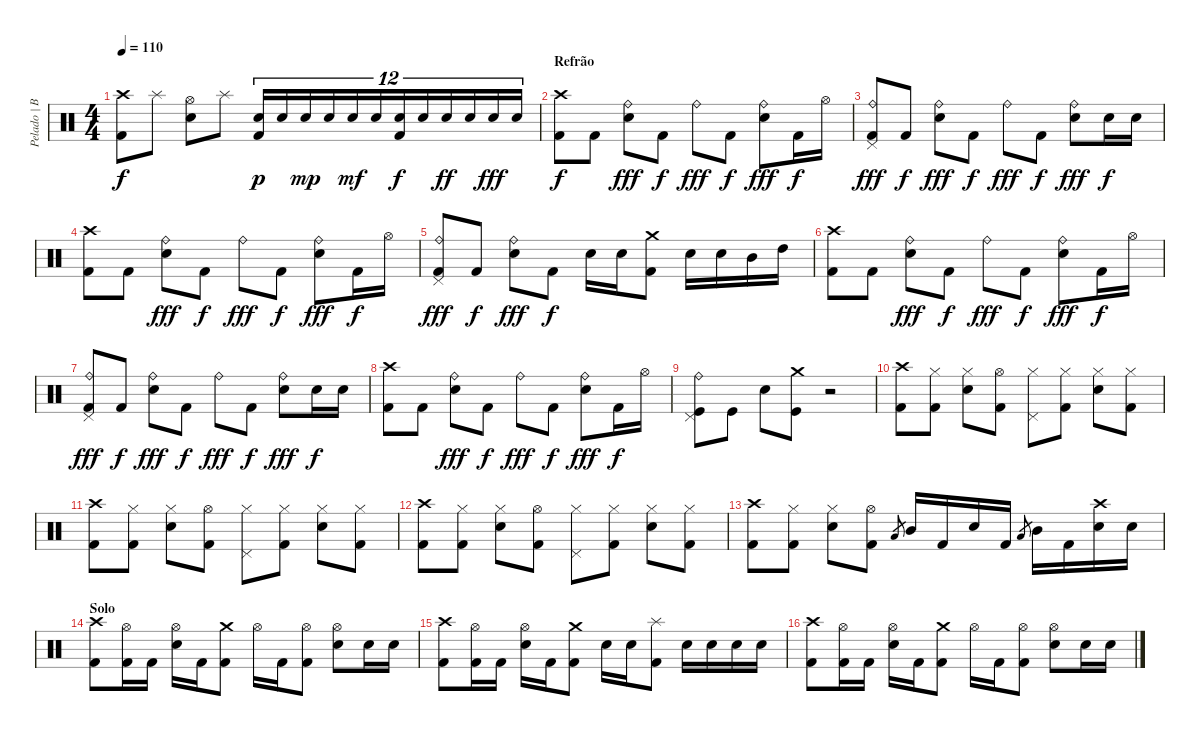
\track ("Pelado | Bateria" "Pelado | B") {instrument percussion}
\staff {score}
\articulation defaults
\ts (4 4)
\tempo 110
\clef neutral
\ks c
("Crash high (hit)" "Kick (hit) 2").8{dy f} "Splash (hit)".8 ("Hi-Hat (open)" "Snare (hit) 2").8 "Splash (hit)".8 ("Snare (hit) 2" "Kick (hit) 2").16{tu (12 8) dy p} "Snare (hit) 2".16{tu (12 8)} "Snare (hit) 2".16{tu (12 8) dy mp} "Snare (hit) 2".16{tu (12 8)} "Snare (hit) 2".16{tu (12 8) dy mf} "Snare (hit) 2".16{tu (12 8)} ("Snare (hit) 2" "Kick (hit) 2").16{tu (12 8) dy f} "Snare (hit) 2".16{tu (12 8)} "Snare (hit) 2".16{tu (12 8) dy ff} "Snare (hit) 2".16{tu (12 8)} "Snare (hit) 2".16{tu (12 8) dy fff} "Snare (hit) 2".16{tu (12 8)} |
\section ("" "Refrão")
("Crash high (hit)" "Kick (hit) 2").8{dy f} "Kick (hit) 2".8 ("Ride (bell)" "Snare (hit) 2").8{dy fff} "Kick (hit) 2".8{dy f} "Ride (bell)".8{dy fff} "Kick (hit) 2".8{dy f} ("Ride (bell)" "Snare (hit) 2").8{dy fff} "Kick (hit) 2".16{dy f} "Hi-Hat (open)".16 |
("Ride (bell)" "Pedal Hi-Hat (hit)" "Kick (hit) 2").8{dy fff} "Kick (hit) 2".8{dy f} ("Ride (bell)" "Snare (hit) 2").8{dy fff} "Kick (hit) 2".8{dy f} "Ride (bell)".8{dy fff} "Kick (hit) 2".8{dy f} ("Ride (bell)" "Snare (hit) 2").8{dy fff} "Snare (hit) 2".16{dy f} "Snare (hit) 2".16 |
("Crash high (hit)" "Kick (hit) 2").8 "Kick (hit) 2".8 ("Ride (bell)" "Snare (hit) 2").8{dy fff} "Kick (hit) 2".8{dy f} "Ride (bell)".8{dy fff} "Kick (hit) 2".8{dy f} ("Ride (bell)" "Snare (hit) 2").8{dy fff} "Kick (hit) 2".16{dy f} "Hi-Hat (open)".16 |
("Ride (bell)" "Pedal Hi-Hat (hit)" "Kick (hit) 2").8{dy fff} "Kick (hit) 2".8{dy f} ("Ride (bell)" "Snare (hit) 2").8{dy fff} "Kick (hit) 2".8{dy f} "Snare (hit) 2".16 "Snare (hit) 2".16 ("Crash medium (hit)" "Kick (hit) 2").8 "Snare (hit) 2".16 "Snare (hit) 2".16 "Mid Tom (hit)".16 "High Tom (hit)".16 |
("Crash high (hit)" "Kick (hit) 2").8 "Kick (hit) 2".8 ("Ride (bell)" "Snare (hit) 2").8{dy fff} "Kick (hit) 2".8{dy f} "Ride (bell)".8{dy fff} "Kick (hit) 2".8{dy f} ("Ride (bell)" "Snare (hit) 2").8{dy fff} "Kick (hit) 2".16{dy f} "Hi-Hat (open)".16 |
("Ride (bell)" "Pedal Hi-Hat (hit)" "Kick (hit) 2").8{dy fff} "Kick (hit) 2".8{dy f} ("Ride (bell)" "Snare (hit) 2").8{dy fff} "Kick (hit) 2".8{dy f} "Ride (bell)".8{dy fff} "Kick (hit) 2".8{dy f} ("Ride (bell)" "Snare (hit) 2").8{dy fff} "Snare (hit) 2".16{dy f} "Snare (hit) 2".16 |
("Crash high (hit)" "Kick (hit) 2").8 "Kick (hit) 2".8 ("Ride (bell)" "Snare (hit) 2").8{dy fff} "Kick (hit) 2".8{dy f} "Ride (bell)".8{dy fff} "Kick (hit) 2".8{dy f} ("Ride (bell)" "Snare (hit) 2").8{dy fff} "Kick (hit) 2".16{dy f} "Hi-Hat (open)".16 |
("Ride (bell)" "Pedal Hi-Hat (hit)" "Kick (hit)").8 "Kick (hit)".8 "Electric Snare (hit)".8 ("Crash medium (hit)" "Kick (hit)").8 r.2 |
("Crash high (hit)" "Kick (hit) 2").8 ("Hi-Hat (closed)" "Kick (hit) 2").8 ("Hi-Hat (closed)" "Snare (hit) 2").8 ("Hi-Hat (open)" "Kick (hit) 2").8 ("Hi-Hat (closed)" "Pedal Hi-Hat (hit)").8 ("Hi-Hat (closed)" "Kick (hit) 2").8 ("Hi-Hat (closed)" "Snare (hit) 2").8 ("Hi-Hat (closed)" "Kick (hit) 2").8 |
("Crash high (hit)" "Kick (hit) 2").8 ("Hi-Hat (closed)" "Kick (hit) 2").8 ("Hi-Hat (closed)" "Snare (hit) 2").8 ("Hi-Hat (open)" "Kick (hit) 2").8 ("Hi-Hat (closed)" "Pedal Hi-Hat (hit)").8 ("Hi-Hat (closed)" "Kick (hit) 2").8 ("Hi-Hat (closed)" "Snare (hit) 2").8 ("Hi-Hat (closed)" "Kick (hit) 2").8 |
("Crash high (hit)" "Kick (hit) 2").8 ("Hi-Hat (closed)" "Kick (hit) 2").8 ("Hi-Hat (closed)" "Snare (hit) 2").8 ("Hi-Hat (open)" "Kick (hit) 2").8 ("Hi-Hat (closed)" "Pedal Hi-Hat (hit)").8 ("Hi-Hat (closed)" "Kick (hit) 2").8 ("Hi-Hat (closed)" "Snare (hit) 2").8 ("Hi-Hat (closed)" "Kick (hit) 2").8 |
("Crash high (hit)" "Kick (hit) 2").8 ("Hi-Hat (closed)" "Kick (hit) 2").8 ("Hi-Hat (closed)" "Snare (hit) 2").8 ("Hi-Hat (open)" "Kick (hit) 2").8 "Low Tom (hit)".8{gr} "Mid Tom (hit)".16 "Kick (hit) 2".16 "Snare (hit) 2".16 "Kick (hit) 2".16 "Low Tom (hit)".8{gr} "Mid Tom (hit)".16 "Kick (hit) 2".16 ("Crash high (hit)" "Snare (hit) 2").16 "Snare (hit) 2".16 |
\section ("" "Solo")
("Crash high (hit)" "Kick (hit) 2").8 ("Hi-Hat (open)" "Kick (hit) 2").16 "Kick (hit) 2".16 ("Hi-Hat (open)" "Snare (hit) 2").16 "Kick (hit) 2".16 ("Crash medium (hit)" "Kick (hit) 2").8 "Hi-Hat (open)".16 "Kick (hit) 2".16 ("Hi-Hat (open)" "Kick (hit) 2").8 ("Hi-Hat (open)" "Snare (hit) 2").8 "Snare (hit) 2".16 "Snare (hit) 2".16 |
("Crash high (hit)" "Kick (hit) 2").8 ("Hi-Hat (open)" "Kick (hit) 2").16 "Kick (hit) 2".16 ("Hi-Hat (open)" "Snare (hit) 2").16 "Kick (hit) 2".16 ("Crash medium (hit)" "Kick (hit) 2").8 "Snare (hit) 2".16 "Snare (hit) 2".16 ("Splash (hit)" "Kick (hit) 2").8 "Snare (hit) 2".16 "Snare (hit) 2".16 "Snare (hit) 2".16 "Snare (hit) 2".16 |
("Crash high (hit)" "Kick (hit) 2").8 ("Hi-Hat (open)" "Kick (hit) 2").16 "Kick (hit) 2".16 ("Hi-Hat (open)" "Snare (hit) 2").16 "Kick (hit) 2".16 ("Crash medium (hit)" "Kick (hit) 2").8 "Hi-Hat (open)".16 "Kick (hit) 2".16 ("Hi-Hat (open)" "Kick (hit) 2").8 ("Hi-Hat (open)" "Snare (hit) 2").8 "Snare (hit) 2".16 "Snare (hit) 2".16
